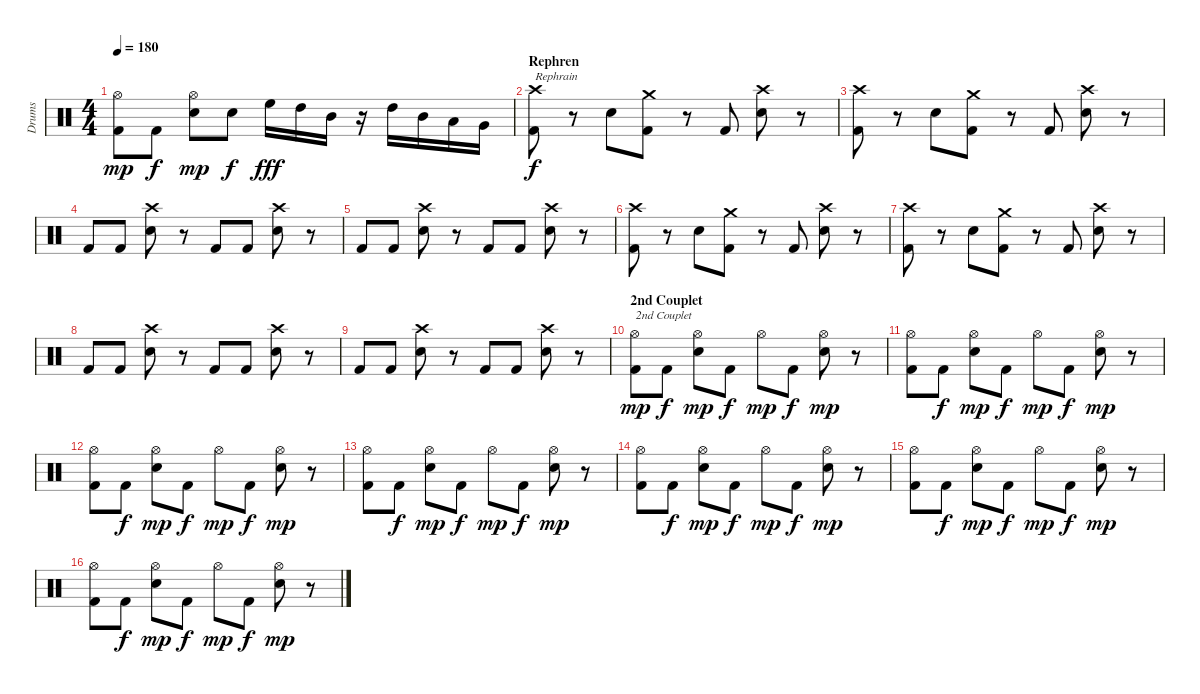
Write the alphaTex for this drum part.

\track ("Drums" "Drums") {instrument percussion}
\staff {score}
\articulation defaults
\ts (4 4)
\tempo 180
\clef neutral
\ks c
("Hi-Hat (open)" "Kick (hit) 2").8{dy mp} "Kick (hit) 2".8{dy f} ("Hi-Hat (open)" "Electric Snare (hit)").8{dy mp} "Snare (hit) 2".8{dy f} "High Floor Tom (hit)".16{dy fff} "High Tom (hit)".16 "Mid Tom (hit)".16 r.16 "High Tom (hit)".16 "Mid Tom (hit)".16 "Low Tom (hit)".16 "Very Low Tom (hit)".16 |
\section ("" "Rephren")
("Crash high (hit)" "Kick (hit) 2").8{txt "Rephrain" dy f} r.8 "Electric Snare (hit)".8 ("Crash medium (hit)" "Kick (hit) 2").8 r.8 "Kick (hit) 2".8 ("Crash high (hit)" "Electric Snare (hit)").8 r.8 |
("Crash high (hit)" "Kick (hit) 2").8 r.8 "Electric Snare (hit)".8 ("Crash medium (hit)" "Kick (hit) 2").8 r.8 "Kick (hit) 2".8 ("Crash high (hit)" "Electric Snare (hit)").8 r.8 |
"Kick (hit) 2".8 "Kick (hit) 2".8 ("Crash high (hit)" "Electric Snare (hit)").8 r.8 "Kick (hit) 2".8 "Kick (hit) 2".8 ("Crash high (hit)" "Electric Snare (hit)").8 r.8 |
"Kick (hit) 2".8 "Kick (hit) 2".8 ("Crash high (hit)" "Electric Snare (hit)").8 r.8 "Kick (hit) 2".8 "Kick (hit) 2".8 ("Crash high (hit)" "Electric Snare (hit)").8 r.8 |
("Crash high (hit)" "Kick (hit) 2").8 r.8 "Electric Snare (hit)".8 ("Crash medium (hit)" "Kick (hit) 2").8 r.8 "Kick (hit) 2".8 ("Crash high (hit)" "Electric Snare (hit)").8 r.8 |
("Crash high (hit)" "Kick (hit) 2").8 r.8 "Electric Snare (hit)".8 ("Crash medium (hit)" "Kick (hit) 2").8 r.8 "Kick (hit) 2".8 ("Crash high (hit)" "Electric Snare (hit)").8 r.8 |
"Kick (hit) 2".8 "Kick (hit) 2".8 ("Crash high (hit)" "Electric Snare (hit)").8 r.8 "Kick (hit) 2".8 "Kick (hit) 2".8 ("Crash high (hit)" "Electric Snare (hit)").8 r.8 |
"Kick (hit) 2".8 "Kick (hit) 2".8 ("Crash high (hit)" "Electric Snare (hit)").8 r.8 "Kick (hit) 2".8 "Kick (hit) 2".8 ("Crash high (hit)" "Electric Snare (hit)").8 r.8 |
\section ("" "2nd Couplet")
("Hi-Hat (open)" "Kick (hit) 2").8{txt "2nd Couplet" dy mp} "Kick (hit) 2".8{dy f} ("Hi-Hat (open)" "Electric Snare (hit)").8{dy mp} "Kick (hit) 2".8{dy f} "Hi-Hat (open)".8{dy mp} "Kick (hit) 2".8{dy f} ("Hi-Hat (open)" "Electric Snare (hit)").8{dy mp} r.8 |
("Hi-Hat (open)" "Kick (hit) 2").8 "Kick (hit) 2".8{dy f} ("Hi-Hat (open)" "Electric Snare (hit)").8{dy mp} "Kick (hit) 2".8{dy f} "Hi-Hat (open)".8{dy mp} "Kick (hit) 2".8{dy f} ("Hi-Hat (open)" "Electric Snare (hit)").8{dy mp} r.8 |
("Hi-Hat (open)" "Kick (hit) 2").8 "Kick (hit) 2".8{dy f} ("Hi-Hat (open)" "Electric Snare (hit)").8{dy mp} "Kick (hit) 2".8{dy f} "Hi-Hat (open)".8{dy mp} "Kick (hit) 2".8{dy f} ("Hi-Hat (open)" "Electric Snare (hit)").8{dy mp} r.8 |
("Hi-Hat (open)" "Kick (hit) 2").8 "Kick (hit) 2".8{dy f} ("Hi-Hat (open)" "Electric Snare (hit)").8{dy mp} "Kick (hit) 2".8{dy f} "Hi-Hat (open)".8{dy mp} "Kick (hit) 2".8{dy f} ("Hi-Hat (open)" "Electric Snare (hit)").8{dy mp} r.8 |
("Hi-Hat (open)" "Kick (hit) 2").8 "Kick (hit) 2".8{dy f} ("Hi-Hat (open)" "Electric Snare (hit)").8{dy mp} "Kick (hit) 2".8{dy f} "Hi-Hat (open)".8{dy mp} "Kick (hit) 2".8{dy f} ("Hi-Hat (open)" "Electric Snare (hit)").8{dy mp} r.8 |
("Hi-Hat (open)" "Kick (hit) 2").8 "Kick (hit) 2".8{dy f} ("Hi-Hat (open)" "Electric Snare (hit)").8{dy mp} "Kick (hit) 2".8{dy f} "Hi-Hat (open)".8{dy mp} "Kick (hit) 2".8{dy f} ("Hi-Hat (open)" "Electric Snare (hit)").8{dy mp} r.8 |
("Hi-Hat (open)" "Kick (hit) 2").8 "Kick (hit) 2".8{dy f} ("Hi-Hat (open)" "Electric Snare (hit)").8{dy mp} "Kick (hit) 2".8{dy f} "Hi-Hat (open)".8{dy mp} "Kick (hit) 2".8{dy f} ("Hi-Hat (open)" "Electric Snare (hit)").8{dy mp} r.8
